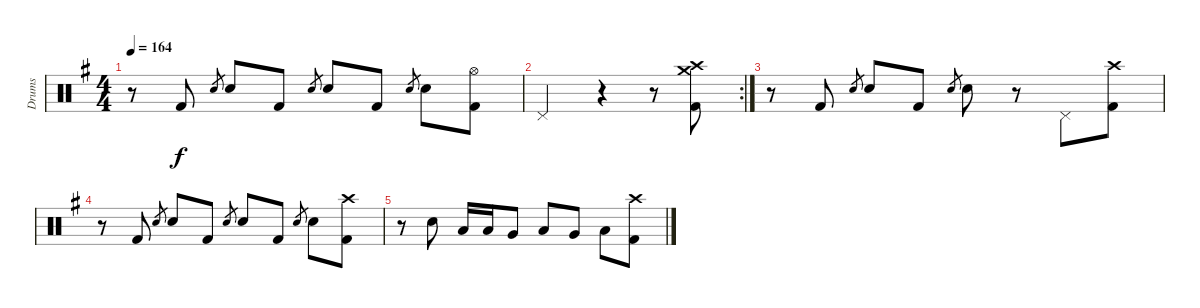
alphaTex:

\track ("Drums" "Drums") {instrument percussion}
\staff
\articulation defaults
\ts (4 4)
\tempo 164
\clef neutral
\ks g
r.8{dy f} "Kick (hit) 2".8 "Snare (hit) 2".8{gr} "Snare (hit) 2".8 "Kick (hit) 2".8 "Snare (hit) 2".8{gr} "Snare (hit) 2".8 "Kick (hit) 2".8 "Snare (hit) 2".8{gr} "Snare (hit) 2".8 ("Hi-Hat (open)" "Kick (hit) 2").8 |
\rc 2 "Pedal Hi-Hat (hit)".2
r.4 r.8 ("Crash high (hit)" "Crash medium (hit)" "Kick (hit) 2").8 |
r.8 "Kick (hit) 2".8 "Snare (hit) 2".8{gr} "Snare (hit) 2".8 "Kick (hit) 2".8 "Snare (hit) 2".8{gr} "Snare (hit) 2".8 r.8 "Pedal Hi-Hat (hit)".8 ("Crash high (hit)" "Kick (hit) 2").8 |
r.8 "Kick (hit) 2".8 "Snare (hit) 2".8{gr} "Snare (hit) 2".8 "Kick (hit) 2".8 "Snare (hit) 2".8{gr} "Snare (hit) 2".8 "Kick (hit) 2".8 "Snare (hit) 2".8{gr} "Snare (hit) 2".8 ("Crash high (hit)" "Kick (hit) 2").8 |
r.8 "Snare (hit) 2".8 "Low Tom (hit)".16 "Low Tom (hit)".16 "Very Low Tom (hit)".8 "Low Tom (hit)".8 "Very Low Tom (hit)".8 "Low Floor Tom (hit)".8 ("Crash high (hit)" "Kick (hit) 2").8
